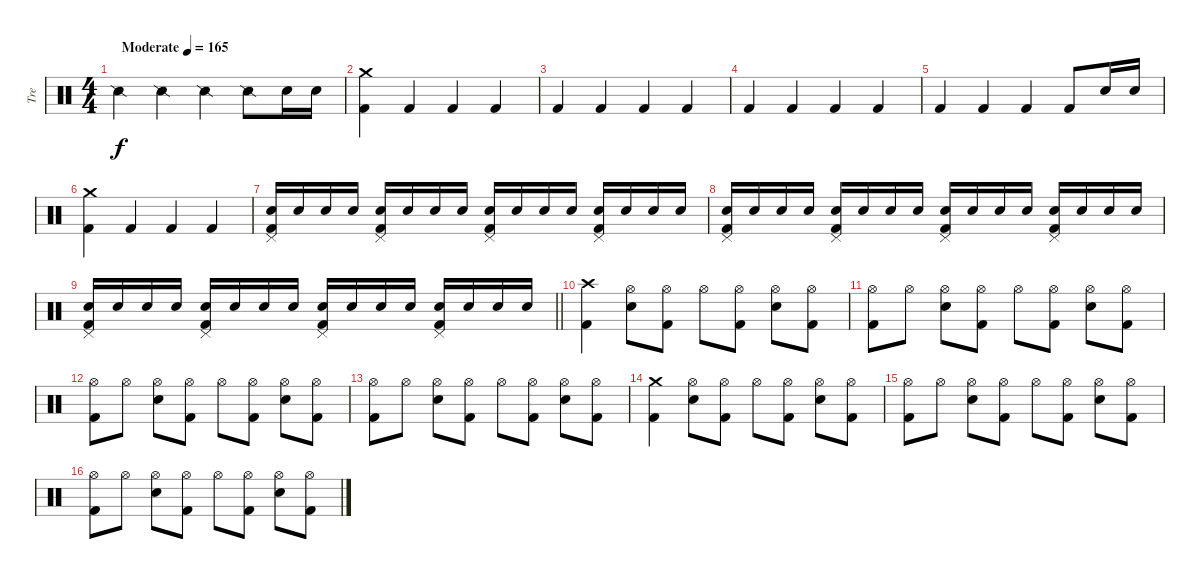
\track ("Tre" "Tre") {instrument percussion}
\staff {score}
\articulation defaults
\ts (4 4)
\tempo (165 "Moderate")
\clef neutral
\ks c "Snare (side stick) 2".4{dy f} "Snare (side stick) 2".4 "Snare (side stick) 2".4 "Snare (side stick) 2".8 "Snare (hit) 2".16 "Snare (hit) 2".16
|
("Crash medium (hit)" "Kick (hit) 2").4 "Kick (hit) 2".4 "Kick (hit) 2".4 "Kick (hit) 2".4 |
"Kick (hit) 2".4 "Kick (hit) 2".4 "Kick (hit) 2".4 "Kick (hit) 2".4 |
"Kick (hit) 2".4 "Kick (hit) 2".4 "Kick (hit) 2".4 "Kick (hit) 2".4 |
"Kick (hit) 2".4 "Kick (hit) 2".4 "Kick (hit) 2".4 "Kick (hit) 2".8 "Snare (hit) 2".16 "Snare (hit) 2".16 |
("Crash medium (hit)" "Kick (hit) 2").4 "Kick (hit) 2".4 "Kick (hit) 2".4 "Kick (hit) 2".4 |
("Snare (hit) 2" "Pedal Hi-Hat (hit)" "Kick (hit) 2").16 "Snare (hit) 2".16 "Snare (hit) 2".16 "Snare (hit) 2".16 ("Snare (hit) 2" "Pedal Hi-Hat (hit)" "Kick (hit) 2").16 "Snare (hit) 2".16 "Snare (hit) 2".16 "Snare (hit) 2".16 ("Snare (hit) 2" "Pedal Hi-Hat (hit)" "Kick (hit) 2").16 "Snare (hit) 2".16 "Snare (hit) 2".16 "Snare (hit) 2".16 ("Snare (hit) 2" "Pedal Hi-Hat (hit)" "Kick (hit) 2").16 "Snare (hit) 2".16 "Snare (hit) 2".16 "Snare (hit) 2".16 |
("Snare (hit) 2" "Pedal Hi-Hat (hit)" "Kick (hit) 2").16 "Snare (hit) 2".16 "Snare (hit) 2".16 "Snare (hit) 2".16 ("Snare (hit) 2" "Pedal Hi-Hat (hit)" "Kick (hit) 2").16 "Snare (hit) 2".16 "Snare (hit) 2".16 "Snare (hit) 2".16 ("Snare (hit) 2" "Pedal Hi-Hat (hit)" "Kick (hit) 2").16 "Snare (hit) 2".16 "Snare (hit) 2".16 "Snare (hit) 2".16 ("Snare (hit) 2" "Pedal Hi-Hat (hit)" "Kick (hit) 2").16 "Snare (hit) 2".16 "Snare (hit) 2".16 "Snare (hit) 2".16 |
\barLineRight lightlight
("Snare (hit) 2" "Pedal Hi-Hat (hit)" "Kick (hit) 2").16 "Snare (hit) 2".16 "Snare (hit) 2".16 "Snare (hit) 2".16 ("Snare (hit) 2" "Pedal Hi-Hat (hit)" "Kick (hit) 2").16 "Snare (hit) 2".16 "Snare (hit) 2".16 "Snare (hit) 2".16 ("Snare (hit) 2" "Pedal Hi-Hat (hit)" "Kick (hit) 2").16 "Snare (hit) 2".16 "Snare (hit) 2".16 "Snare (hit) 2".16 ("Snare (hit) 2" "Pedal Hi-Hat (hit)" "Kick (hit) 2").16 "Snare (hit) 2".16 "Snare (hit) 2".16 "Snare (hit) 2".16 |
("Crash high (hit)" "Kick (hit) 2").4 ("Hi-Hat (open)" "Snare (hit) 2").8 ("Hi-Hat (open)" "Kick (hit) 2").8 "Hi-Hat (open)".8 ("Hi-Hat (open)" "Kick (hit) 2").8 ("Hi-Hat (open)" "Snare (hit) 2").8 ("Hi-Hat (open)" "Kick (hit) 2").8 |
("Hi-Hat (open)" "Kick (hit) 2").8 "Hi-Hat (open)".8 ("Hi-Hat (open)" "Snare (hit) 2").8 ("Hi-Hat (open)" "Kick (hit) 2").8 "Hi-Hat (open)".8 ("Hi-Hat (open)" "Kick (hit) 2").8 ("Hi-Hat (open)" "Snare (hit) 2").8 ("Hi-Hat (open)" "Kick (hit) 2").8 |
("Hi-Hat (open)" "Kick (hit) 2").8 "Hi-Hat (open)".8 ("Hi-Hat (open)" "Snare (hit) 2").8 ("Hi-Hat (open)" "Kick (hit) 2").8 "Hi-Hat (open)".8 ("Hi-Hat (open)" "Kick (hit) 2").8 ("Hi-Hat (open)" "Snare (hit) 2").8 ("Hi-Hat (open)" "Kick (hit) 2").8 |
("Hi-Hat (open)" "Kick (hit) 2").8 "Hi-Hat (open)".8 ("Hi-Hat (open)" "Snare (hit) 2").8 ("Hi-Hat (open)" "Kick (hit) 2").8 "Hi-Hat (open)".8 ("Hi-Hat (open)" "Kick (hit) 2").8 ("Hi-Hat (open)" "Snare (hit) 2").8 ("Hi-Hat (open)" "Kick (hit) 2").8 |
("Crash medium (hit)" "Kick (hit) 2").4 ("Hi-Hat (open)" "Snare (hit) 2").8 ("Hi-Hat (open)" "Kick (hit) 2").8 "Hi-Hat (open)".8 ("Hi-Hat (open)" "Kick (hit) 2").8 ("Hi-Hat (open)" "Snare (hit) 2").8 ("Hi-Hat (open)" "Kick (hit) 2").8 |
("Hi-Hat (open)" "Kick (hit) 2").8 "Hi-Hat (open)".8 ("Hi-Hat (open)" "Snare (hit) 2").8 ("Hi-Hat (open)" "Kick (hit) 2").8 "Hi-Hat (open)".8 ("Hi-Hat (open)" "Kick (hit) 2").8 ("Hi-Hat (open)" "Snare (hit) 2").8 ("Hi-Hat (open)" "Kick (hit) 2").8 |
("Hi-Hat (open)" "Kick (hit) 2").8 "Hi-Hat (open)".8 ("Hi-Hat (open)" "Snare (hit) 2").8 ("Hi-Hat (open)" "Kick (hit) 2").8 "Hi-Hat (open)".8 ("Hi-Hat (open)" "Kick (hit) 2").8 ("Hi-Hat (open)" "Snare (hit) 2").8 ("Hi-Hat (open)" "Kick (hit) 2").8
